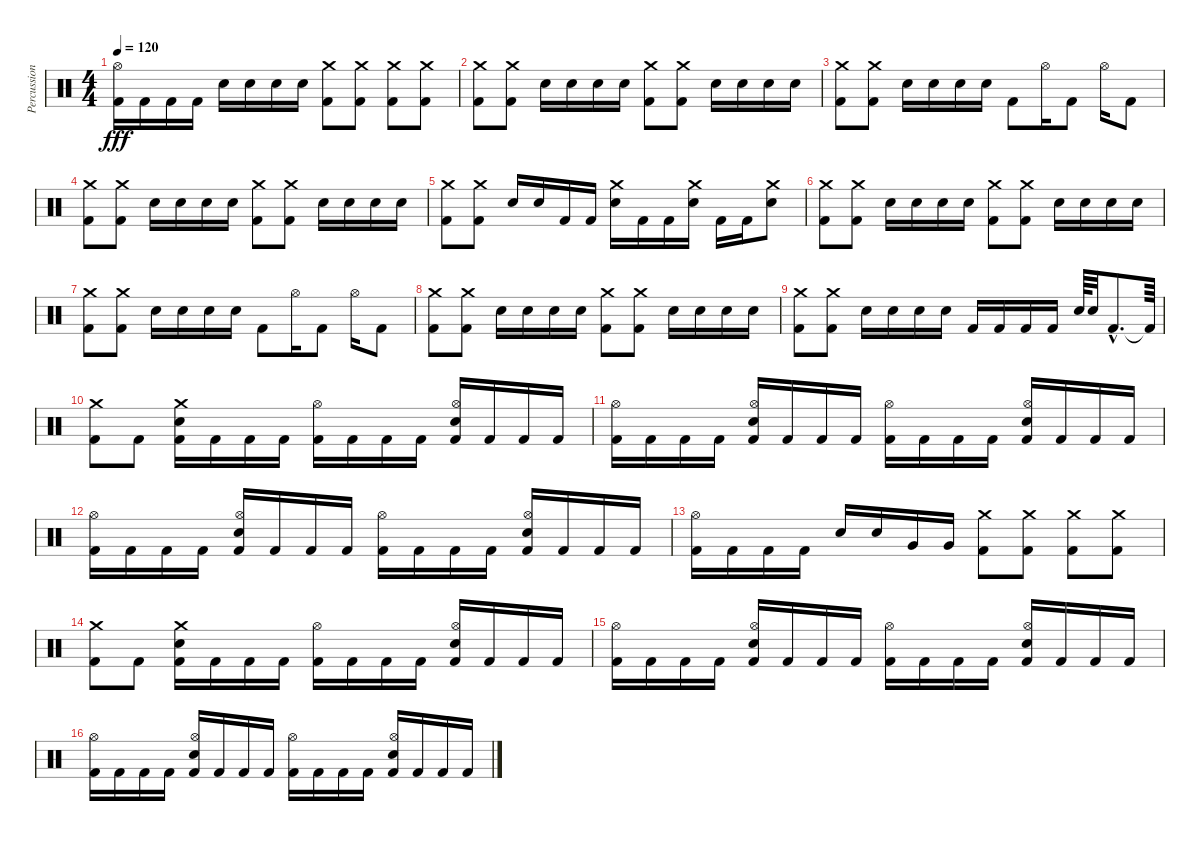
\track ("Percussion" "Percussion") {instrument percussion}
\staff {score}
\articulation defaults
\ts (4 4)
\tempo 120
\clef neutral
\ks c
("Kick (hit) 2" "Hi-Hat (open)").16{dy fff} "Kick (hit) 2".16 "Kick (hit) 2".16 "Kick (hit) 2".16 "Electric Snare (hit)".16 "Electric Snare (hit)".16 "Electric Snare (hit)".16 "Electric Snare (hit)".16 ("Kick (hit) 2" "Crash medium (hit)").8 ("Kick (hit) 2" "Crash medium (hit)").8 ("Kick (hit) 2" "Crash medium (hit)").8 ("Kick (hit) 2" "Crash medium (hit)").8 |
("Kick (hit) 2" "Crash medium (hit)").8 ("Kick (hit) 2" "Crash medium (hit)").8 "Electric Snare (hit)".16 "Electric Snare (hit)".16 "Electric Snare (hit)".16 "Electric Snare (hit)".16 ("Kick (hit) 2" "Crash medium (hit)").8 ("Kick (hit) 2" "Crash medium (hit)").8 "Electric Snare (hit)".16 "Electric Snare (hit)".16 "Electric Snare (hit)".16 "Electric Snare (hit)".16 |
("Kick (hit) 2" "Crash medium (hit)").8 ("Kick (hit) 2" "Crash medium (hit)").8 "Electric Snare (hit)".16 "Electric Snare (hit)".16 "Electric Snare (hit)".16 "Electric Snare (hit)".16 "Kick (hit) 2".8 "Hi-Hat (open)".16 "Kick (hit) 2".8 "Hi-Hat (open)".16 "Kick (hit) 2".8 |
("Kick (hit) 2" "Crash medium (hit)").8 ("Kick (hit) 2" "Crash medium (hit)").8 "Electric Snare (hit)".16 "Electric Snare (hit)".16 "Electric Snare (hit)".16 "Electric Snare (hit)".16 ("Kick (hit) 2" "Crash medium (hit)").8 ("Kick (hit) 2" "Crash medium (hit)").8 "Electric Snare (hit)".16 "Electric Snare (hit)".16 "Electric Snare (hit)".16 "Electric Snare (hit)".16 |
("Kick (hit) 2" "Crash medium (hit)").8 ("Kick (hit) 2" "Crash medium (hit)").8 "Electric Snare (hit)".16 "Electric Snare (hit)".16 "Kick (hit) 2".16 "Kick (hit) 2".16 ("Electric Snare (hit)" "Crash medium (hit)").16 "Kick (hit) 2".16 "Kick (hit) 2".16 ("Electric Snare (hit)" "Crash medium (hit)").16 "Kick (hit) 2".16 "Kick (hit) 2".16 ("Electric Snare (hit)" "Crash medium (hit)").8 |
("Kick (hit) 2" "Crash medium (hit)").8 ("Kick (hit) 2" "Crash medium (hit)").8 "Electric Snare (hit)".16 "Electric Snare (hit)".16 "Electric Snare (hit)".16 "Electric Snare (hit)".16 ("Kick (hit) 2" "Crash medium (hit)").8 ("Kick (hit) 2" "Crash medium (hit)").8 "Electric Snare (hit)".16 "Electric Snare (hit)".16 "Electric Snare (hit)".16 "Electric Snare (hit)".16 |
("Kick (hit) 2" "Crash medium (hit)").8 ("Kick (hit) 2" "Crash medium (hit)").8 "Electric Snare (hit)".16 "Electric Snare (hit)".16 "Electric Snare (hit)".16 "Electric Snare (hit)".16 "Kick (hit) 2".8 "Hi-Hat (open)".16 "Kick (hit) 2".8 "Hi-Hat (open)".16 "Kick (hit) 2".8 |
("Kick (hit) 2" "Crash medium (hit)").8 ("Kick (hit) 2" "Crash medium (hit)").8 "Electric Snare (hit)".16 "Electric Snare (hit)".16 "Electric Snare (hit)".16 "Electric Snare (hit)".16 ("Kick (hit) 2" "Crash medium (hit)").8 ("Kick (hit) 2" "Crash medium (hit)").8 "Electric Snare (hit)".16 "Electric Snare (hit)".16 "Electric Snare (hit)".16 "Electric Snare (hit)".16 |
("Kick (hit) 2" "Crash medium (hit)").8 ("Kick (hit) 2" "Crash medium (hit)").8 "Electric Snare (hit)".16 "Electric Snare (hit)".16 "Electric Snare (hit)".16 "Electric Snare (hit)".16 "Kick (hit) 2".16 "Kick (hit) 2".16 "Kick (hit) 2".16 "Kick (hit) 2".16 "Electric Snare (hit)".64 "Electric Snare (hit)".32 "Kick (hit) 2"{hac}.8{d} "Kick (hit) 2"{t}.64 |
("Kick (hit) 2" "Crash medium (hit)").8 "Kick (hit) 2".8 ("Kick (hit) 2" "Electric Snare (hit)" "Crash medium (hit)").16 "Kick (hit) 2".16 "Kick (hit) 2".16 "Kick (hit) 2".16 ("Kick (hit) 2" "Hi-Hat (open)").16 "Kick (hit) 2".16 "Kick (hit) 2".16 "Kick (hit) 2".16 ("Kick (hit) 2" "Electric Snare (hit)" "Hi-Hat (open)").16 "Kick (hit) 2".16 "Kick (hit) 2".16 "Kick (hit) 2".16 |
("Kick (hit) 2" "Hi-Hat (open)").16 "Kick (hit) 2".16 "Kick (hit) 2".16 "Kick (hit) 2".16 ("Kick (hit) 2" "Electric Snare (hit)" "Hi-Hat (open)").16 "Kick (hit) 2".16 "Kick (hit) 2".16 "Kick (hit) 2".16 ("Kick (hit) 2" "Hi-Hat (open)").16 "Kick (hit) 2".16 "Kick (hit) 2".16 "Kick (hit) 2".16 ("Kick (hit) 2" "Electric Snare (hit)" "Hi-Hat (open)").16 "Kick (hit) 2".16 "Kick (hit) 2".16 "Kick (hit) 2".16 |
("Kick (hit) 2" "Hi-Hat (open)").16 "Kick (hit) 2".16 "Kick (hit) 2".16 "Kick (hit) 2".16 ("Kick (hit) 2" "Electric Snare (hit)" "Hi-Hat (open)").16 "Kick (hit) 2".16 "Kick (hit) 2".16 "Kick (hit) 2".16 ("Kick (hit) 2" "Hi-Hat (open)").16 "Kick (hit) 2".16 "Kick (hit) 2".16 "Kick (hit) 2".16 ("Kick (hit) 2" "Electric Snare (hit)" "Hi-Hat (open)").16 "Kick (hit) 2".16 "Kick (hit) 2".16 "Kick (hit) 2".16 |
("Kick (hit) 2" "Hi-Hat (open)").16 "Kick (hit) 2".16 "Kick (hit) 2".16 "Kick (hit) 2".16 "Electric Snare (hit)".16 "Electric Snare (hit)".16 "Very Low Tom (hit)".16 "Very Low Tom (hit)".16 ("Kick (hit) 2" "Crash medium (hit)").8 ("Kick (hit) 2" "Crash medium (hit)").8 ("Kick (hit) 2" "Crash medium (hit)").8 ("Kick (hit) 2" "Crash medium (hit)").8 |
("Kick (hit) 2" "Crash medium (hit)").8 "Kick (hit) 2".8 ("Kick (hit) 2" "Electric Snare (hit)" "Crash medium (hit)").16 "Kick (hit) 2".16 "Kick (hit) 2".16 "Kick (hit) 2".16 ("Kick (hit) 2" "Hi-Hat (open)").16 "Kick (hit) 2".16 "Kick (hit) 2".16 "Kick (hit) 2".16 ("Kick (hit) 2" "Electric Snare (hit)" "Hi-Hat (open)").16 "Kick (hit) 2".16 "Kick (hit) 2".16 "Kick (hit) 2".16 |
("Kick (hit) 2" "Hi-Hat (open)").16 "Kick (hit) 2".16 "Kick (hit) 2".16 "Kick (hit) 2".16 ("Kick (hit) 2" "Electric Snare (hit)" "Hi-Hat (open)").16 "Kick (hit) 2".16 "Kick (hit) 2".16 "Kick (hit) 2".16 ("Kick (hit) 2" "Hi-Hat (open)").16 "Kick (hit) 2".16 "Kick (hit) 2".16 "Kick (hit) 2".16 ("Kick (hit) 2" "Electric Snare (hit)" "Hi-Hat (open)").16 "Kick (hit) 2".16 "Kick (hit) 2".16 "Kick (hit) 2".16 |
("Kick (hit) 2" "Hi-Hat (open)").16 "Kick (hit) 2".16 "Kick (hit) 2".16 "Kick (hit) 2".16 ("Kick (hit) 2" "Electric Snare (hit)" "Hi-Hat (open)").16 "Kick (hit) 2".16 "Kick (hit) 2".16 "Kick (hit) 2".16 ("Kick (hit) 2" "Hi-Hat (open)").16 "Kick (hit) 2".16 "Kick (hit) 2".16 "Kick (hit) 2".16 ("Kick (hit) 2" "Electric Snare (hit)" "Hi-Hat (open)").16 "Kick (hit) 2".16 "Kick (hit) 2".16 "Kick (hit) 2".16
